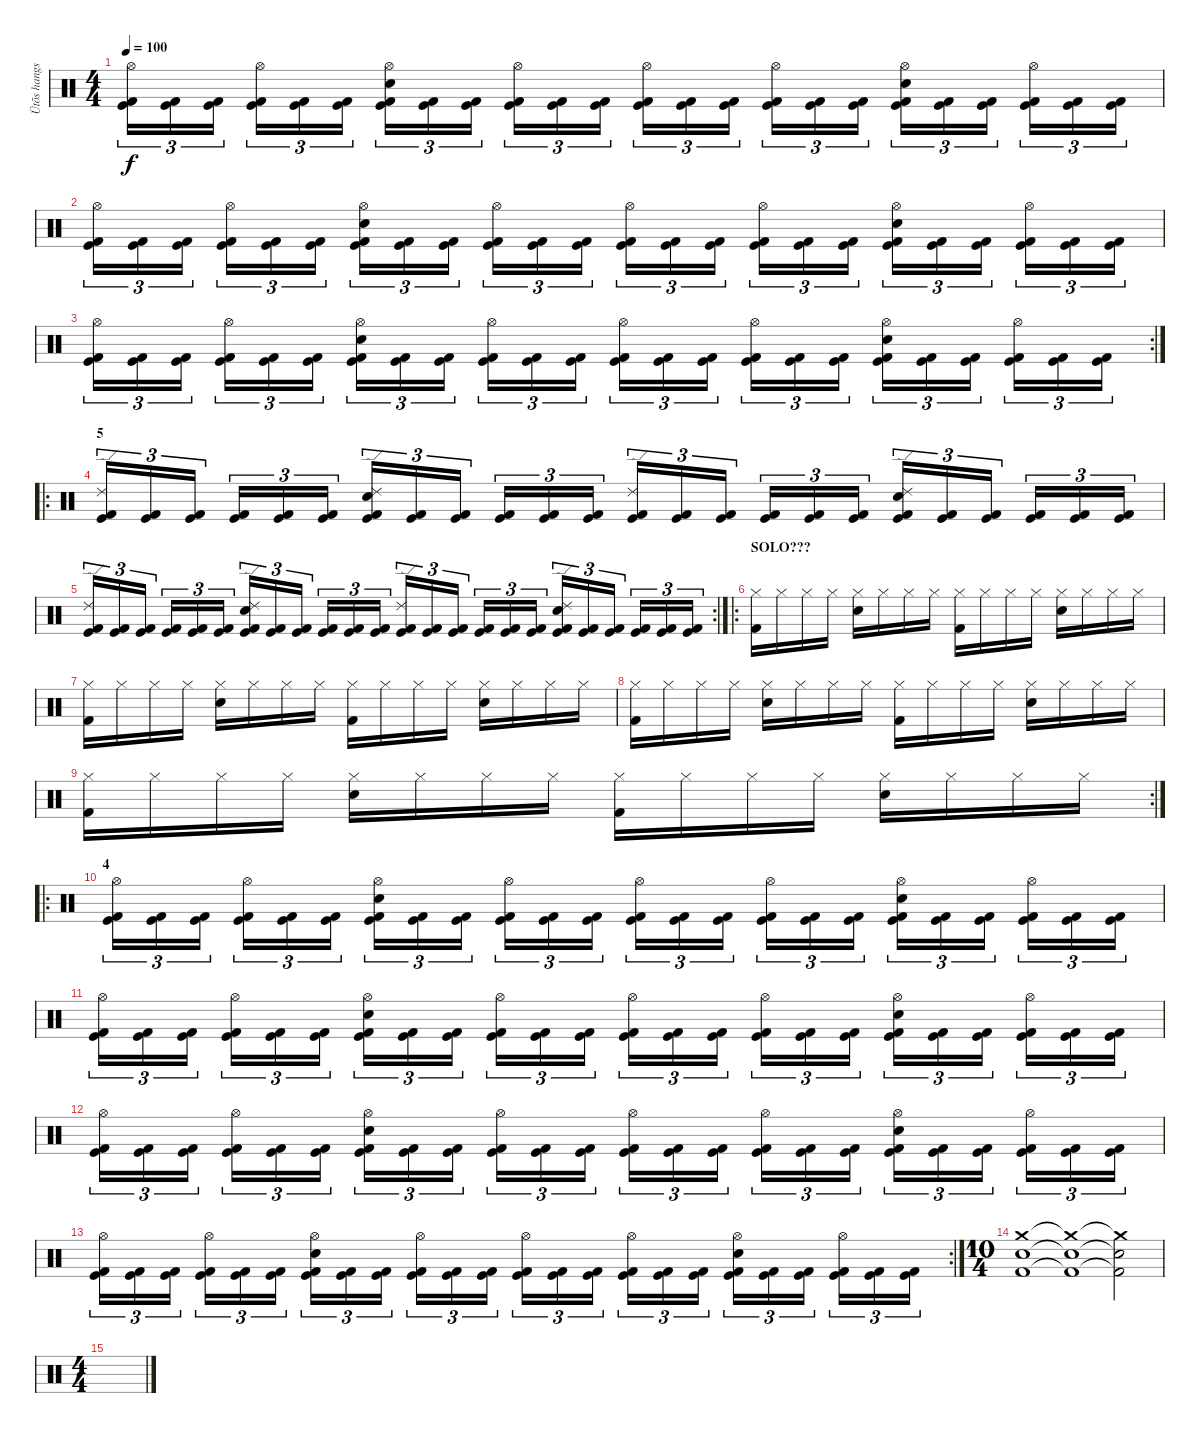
\track ("Ütõs hangszer" "Ütõs hangs") {instrument percussion}
\staff {score}
\articulation defaults
\ts (4 4)
\tempo 100
\clef neutral
\ks c
("Hi-Hat (open)" "Kick (hit)" "Kick (hit) 2").16{tu (3 2) dy f} ("Kick (hit)" "Kick (hit) 2").16{tu (3 2)} ("Kick (hit)" "Kick (hit) 2").16{tu (3 2)} ("Hi-Hat (open)" "Kick (hit)" "Kick (hit) 2").16{tu (3 2)} ("Kick (hit)" "Kick (hit) 2").16{tu (3 2)} ("Kick (hit)" "Kick (hit) 2").16{tu (3 2)} ("Hi-Hat (open)" "Snare (hit) 2" "Kick (hit)" "Kick (hit) 2").16{tu (3 2)} ("Kick (hit)" "Kick (hit) 2").16{tu (3 2)} ("Kick (hit)" "Kick (hit) 2").16{tu (3 2)} ("Hi-Hat (open)" "Kick (hit)" "Kick (hit) 2").16{tu (3 2)} ("Kick (hit)" "Kick (hit) 2").16{tu (3 2)} ("Kick (hit)" "Kick (hit) 2").16{tu (3 2)} ("Hi-Hat (open)" "Kick (hit)" "Kick (hit) 2").16{tu (3 2)} ("Kick (hit)" "Kick (hit) 2").16{tu (3 2)} ("Kick (hit)" "Kick (hit) 2").16{tu (3 2)} ("Hi-Hat (open)" "Kick (hit)" "Kick (hit) 2").16{tu (3 2)} ("Kick (hit)" "Kick (hit) 2").16{tu (3 2)} ("Kick (hit)" "Kick (hit) 2").16{tu (3 2)} ("Hi-Hat (open)" "Snare (hit) 2" "Kick (hit)" "Kick (hit) 2").16{tu (3 2)} ("Kick (hit)" "Kick (hit) 2").16{tu (3 2)} ("Kick (hit)" "Kick (hit) 2").16{tu (3 2)} ("Hi-Hat (open)" "Kick (hit)" "Kick (hit) 2").16{tu (3 2)} ("Kick (hit)" "Kick (hit) 2").16{tu (3 2)} ("Kick (hit)" "Kick (hit) 2").16{tu (3 2)} |
("Hi-Hat (open)" "Kick (hit)" "Kick (hit) 2").16{tu (3 2)} ("Kick (hit)" "Kick (hit) 2").16{tu (3 2)} ("Kick (hit)" "Kick (hit) 2").16{tu (3 2)} ("Hi-Hat (open)" "Kick (hit)" "Kick (hit) 2").16{tu (3 2)} ("Kick (hit)" "Kick (hit) 2").16{tu (3 2)} ("Kick (hit)" "Kick (hit) 2").16{tu (3 2)} ("Hi-Hat (open)" "Snare (hit) 2" "Kick (hit)" "Kick (hit) 2").16{tu (3 2)} ("Kick (hit)" "Kick (hit) 2").16{tu (3 2)} ("Kick (hit)" "Kick (hit) 2").16{tu (3 2)} ("Hi-Hat (open)" "Kick (hit)" "Kick (hit) 2").16{tu (3 2)} ("Kick (hit)" "Kick (hit) 2").16{tu (3 2)} ("Kick (hit)" "Kick (hit) 2").16{tu (3 2)} ("Hi-Hat (open)" "Kick (hit)" "Kick (hit) 2").16{tu (3 2)} ("Kick (hit)" "Kick (hit) 2").16{tu (3 2)} ("Kick (hit)" "Kick (hit) 2").16{tu (3 2)} ("Hi-Hat (open)" "Kick (hit)" "Kick (hit) 2").16{tu (3 2)} ("Kick (hit)" "Kick (hit) 2").16{tu (3 2)} ("Kick (hit)" "Kick (hit) 2").16{tu (3 2)} ("Hi-Hat (open)" "Snare (hit) 2" "Kick (hit)" "Kick (hit) 2").16{tu (3 2)} ("Kick (hit)" "Kick (hit) 2").16{tu (3 2)} ("Kick (hit)" "Kick (hit) 2").16{tu (3 2)} ("Hi-Hat (open)" "Kick (hit)" "Kick (hit) 2").16{tu (3 2)} ("Kick (hit)" "Kick (hit) 2").16{tu (3 2)} ("Kick (hit)" "Kick (hit) 2").16{tu (3 2)} |
\rc 2
("Hi-Hat (open)" "Kick (hit)" "Kick (hit) 2").16{tu (3 2)} ("Kick (hit)" "Kick (hit) 2").16{tu (3 2)} ("Kick (hit)" "Kick (hit) 2").16{tu (3 2)} ("Hi-Hat (open)" "Kick (hit)" "Kick (hit) 2").16{tu (3 2)} ("Kick (hit)" "Kick (hit) 2").16{tu (3 2)} ("Kick (hit)" "Kick (hit) 2").16{tu (3 2)} ("Hi-Hat (open)" "Snare (hit) 2" "Kick (hit)" "Kick (hit) 2").16{tu (3 2)} ("Kick (hit)" "Kick (hit) 2").16{tu (3 2)} ("Kick (hit)" "Kick (hit) 2").16{tu (3 2)} ("Hi-Hat (open)" "Kick (hit)" "Kick (hit) 2").16{tu (3 2)} ("Kick (hit)" "Kick (hit) 2").16{tu (3 2)} ("Kick (hit)" "Kick (hit) 2").16{tu (3 2)} ("Hi-Hat (open)" "Kick (hit)" "Kick (hit) 2").16{tu (3 2)} ("Kick (hit)" "Kick (hit) 2").16{tu (3 2)} ("Kick (hit)" "Kick (hit) 2").16{tu (3 2)} ("Hi-Hat (open)" "Kick (hit)" "Kick (hit) 2").16{tu (3 2)} ("Kick (hit)" "Kick (hit) 2").16{tu (3 2)} ("Kick (hit)" "Kick (hit) 2").16{tu (3 2)} ("Hi-Hat (open)" "Snare (hit) 2" "Kick (hit)" "Kick (hit) 2").16{tu (3 2)} ("Kick (hit)" "Kick (hit) 2").16{tu (3 2)} ("Kick (hit)" "Kick (hit) 2").16{tu (3 2)} ("Hi-Hat (open)" "Kick (hit)" "Kick (hit) 2").16{tu (3 2)} ("Kick (hit)" "Kick (hit) 2").16{tu (3 2)} ("Kick (hit)" "Kick (hit) 2").16{tu (3 2)} |
\ro
\section ("" "5")
("Ride (edge) 2" "Kick (hit)" "Kick (hit) 2").16{tu (3 2)} ("Kick (hit)" "Kick (hit) 2").16{tu (3 2)} ("Kick (hit)" "Kick (hit) 2").16{tu (3 2)} ("Kick (hit)" "Kick (hit) 2").16{tu (3 2)} ("Kick (hit)" "Kick (hit) 2").16{tu (3 2)} ("Kick (hit)" "Kick (hit) 2").16{tu (3 2)} ("Ride (edge) 2" "Snare (hit) 2" "Kick (hit)" "Kick (hit) 2").16{tu (3 2)} ("Kick (hit)" "Kick (hit) 2").16{tu (3 2)} ("Kick (hit)" "Kick (hit) 2").16{tu (3 2)} ("Kick (hit)" "Kick (hit) 2").16{tu (3 2)} ("Kick (hit)" "Kick (hit) 2").16{tu (3 2)} ("Kick (hit)" "Kick (hit) 2").16{tu (3 2)} ("Ride (edge) 2" "Kick (hit)" "Kick (hit) 2").16{tu (3 2)} ("Kick (hit)" "Kick (hit) 2").16{tu (3 2)} ("Kick (hit)" "Kick (hit) 2").16{tu (3 2)} ("Kick (hit)" "Kick (hit) 2").16{tu (3 2)} ("Kick (hit)" "Kick (hit) 2").16{tu (3 2)} ("Kick (hit)" "Kick (hit) 2").16{tu (3 2)} ("Ride (edge) 2" "Snare (hit) 2" "Kick (hit)" "Kick (hit) 2").16{tu (3 2)} ("Kick (hit)" "Kick (hit) 2").16{tu (3 2)} ("Kick (hit)" "Kick (hit) 2").16{tu (3 2)} ("Kick (hit)" "Kick (hit) 2").16{tu (3 2)} ("Kick (hit)" "Kick (hit) 2").16{tu (3 2)} ("Kick (hit)" "Kick (hit) 2").16{tu (3 2)} |
\rc 2
("Ride (edge) 2" "Kick (hit)" "Kick (hit) 2").16{tu (3 2)} ("Kick (hit)" "Kick (hit) 2").16{tu (3 2)} ("Kick (hit)" "Kick (hit) 2").16{tu (3 2)} ("Kick (hit)" "Kick (hit) 2").16{tu (3 2)} ("Kick (hit)" "Kick (hit) 2").16{tu (3 2)} ("Kick (hit)" "Kick (hit) 2").16{tu (3 2)} ("Ride (edge) 2" "Snare (hit) 2" "Kick (hit)" "Kick (hit) 2").16{tu (3 2)} ("Kick (hit)" "Kick (hit) 2").16{tu (3 2)} ("Kick (hit)" "Kick (hit) 2").16{tu (3 2)} ("Kick (hit)" "Kick (hit) 2").16{tu (3 2)} ("Kick (hit)" "Kick (hit) 2").16{tu (3 2)} ("Kick (hit)" "Kick (hit) 2").16{tu (3 2)} ("Ride (edge) 2" "Kick (hit)" "Kick (hit) 2").16{tu (3 2)} ("Kick (hit)" "Kick (hit) 2").16{tu (3 2)} ("Kick (hit)" "Kick (hit) 2").16{tu (3 2)} ("Kick (hit)" "Kick (hit) 2").16{tu (3 2)} ("Kick (hit)" "Kick (hit) 2").16{tu (3 2)} ("Kick (hit)" "Kick (hit) 2").16{tu (3 2)} ("Ride (edge) 2" "Snare (hit) 2" "Kick (hit)" "Kick (hit) 2").16{tu (3 2)} ("Kick (hit)" "Kick (hit) 2").16{tu (3 2)} ("Kick (hit)" "Kick (hit) 2").16{tu (3 2)} ("Kick (hit)" "Kick (hit) 2").16{tu (3 2)} ("Kick (hit)" "Kick (hit) 2").16{tu (3 2)} ("Kick (hit)" "Kick (hit) 2").16{tu (3 2)} |
\ro
\section ("" "SOLO???")
("Hi-Hat (closed)" "Kick (hit) 2").16 "Hi-Hat (closed)".16 "Hi-Hat (closed)".16 "Hi-Hat (closed)".16 ("Hi-Hat (closed)" "Snare (hit) 2").16 "Hi-Hat (closed)".16 "Hi-Hat (closed)".16 "Hi-Hat (closed)".16 ("Hi-Hat (closed)" "Kick (hit) 2").16 "Hi-Hat (closed)".16 "Hi-Hat (closed)".16 "Hi-Hat (closed)".16 ("Hi-Hat (closed)" "Snare (hit) 2").16 "Hi-Hat (closed)".16 "Hi-Hat (closed)".16 "Hi-Hat (closed)".16 |
("Hi-Hat (closed)" "Kick (hit) 2").16 "Hi-Hat (closed)".16 "Hi-Hat (closed)".16 "Hi-Hat (closed)".16 ("Hi-Hat (closed)" "Snare (hit) 2").16 "Hi-Hat (closed)".16 "Hi-Hat (closed)".16 "Hi-Hat (closed)".16 ("Hi-Hat (closed)" "Kick (hit) 2").16 "Hi-Hat (closed)".16 "Hi-Hat (closed)".16 "Hi-Hat (closed)".16 ("Hi-Hat (closed)" "Snare (hit) 2").16 "Hi-Hat (closed)".16 "Hi-Hat (closed)".16 "Hi-Hat (closed)".16 |
("Hi-Hat (closed)" "Kick (hit) 2").16 "Hi-Hat (closed)".16 "Hi-Hat (closed)".16 "Hi-Hat (closed)".16 ("Hi-Hat (closed)" "Snare (hit) 2").16 "Hi-Hat (closed)".16 "Hi-Hat (closed)".16 "Hi-Hat (closed)".16 ("Hi-Hat (closed)" "Kick (hit) 2").16 "Hi-Hat (closed)".16 "Hi-Hat (closed)".16 "Hi-Hat (closed)".16 ("Hi-Hat (closed)" "Snare (hit) 2").16 "Hi-Hat (closed)".16 "Hi-Hat (closed)".16 "Hi-Hat (closed)".16 |
\rc 2
("Hi-Hat (closed)" "Kick (hit) 2").16 "Hi-Hat (closed)".16 "Hi-Hat (closed)".16 "Hi-Hat (closed)".16 ("Hi-Hat (closed)" "Snare (hit) 2").16 "Hi-Hat (closed)".16 "Hi-Hat (closed)".16 "Hi-Hat (closed)".16 ("Hi-Hat (closed)" "Kick (hit) 2").16 "Hi-Hat (closed)".16 "Hi-Hat (closed)".16 "Hi-Hat (closed)".16 ("Hi-Hat (closed)" "Snare (hit) 2").16 "Hi-Hat (closed)".16 "Hi-Hat (closed)".16 "Hi-Hat (closed)".16 |
\ro
\section ("" "4")
("Hi-Hat (open)" "Kick (hit)" "Kick (hit) 2").16{tu (3 2)} ("Kick (hit)" "Kick (hit) 2").16{tu (3 2)} ("Kick (hit)" "Kick (hit) 2").16{tu (3 2)} ("Hi-Hat (open)" "Kick (hit)" "Kick (hit) 2").16{tu (3 2)} ("Kick (hit)" "Kick (hit) 2").16{tu (3 2)} ("Kick (hit)" "Kick (hit) 2").16{tu (3 2)} ("Hi-Hat (open)" "Snare (hit) 2" "Kick (hit)" "Kick (hit) 2").16{tu (3 2)} ("Kick (hit)" "Kick (hit) 2").16{tu (3 2)} ("Kick (hit)" "Kick (hit) 2").16{tu (3 2)} ("Hi-Hat (open)" "Kick (hit)" "Kick (hit) 2").16{tu (3 2)} ("Kick (hit)" "Kick (hit) 2").16{tu (3 2)} ("Kick (hit)" "Kick (hit) 2").16{tu (3 2)} ("Hi-Hat (open)" "Kick (hit)" "Kick (hit) 2").16{tu (3 2)} ("Kick (hit)" "Kick (hit) 2").16{tu (3 2)} ("Kick (hit)" "Kick (hit) 2").16{tu (3 2)} ("Hi-Hat (open)" "Kick (hit)" "Kick (hit) 2").16{tu (3 2)} ("Kick (hit)" "Kick (hit) 2").16{tu (3 2)} ("Kick (hit)" "Kick (hit) 2").16{tu (3 2)} ("Hi-Hat (open)" "Snare (hit) 2" "Kick (hit)" "Kick (hit) 2").16{tu (3 2)} ("Kick (hit)" "Kick (hit) 2").16{tu (3 2)} ("Kick (hit)" "Kick (hit) 2").16{tu (3 2)} ("Hi-Hat (open)" "Kick (hit)" "Kick (hit) 2").16{tu (3 2)} ("Kick (hit)" "Kick (hit) 2").16{tu (3 2)} ("Kick (hit)" "Kick (hit) 2").16{tu (3 2)} |
("Hi-Hat (open)" "Kick (hit)" "Kick (hit) 2").16{tu (3 2)} ("Kick (hit)" "Kick (hit) 2").16{tu (3 2)} ("Kick (hit)" "Kick (hit) 2").16{tu (3 2)} ("Hi-Hat (open)" "Kick (hit)" "Kick (hit) 2").16{tu (3 2)} ("Kick (hit)" "Kick (hit) 2").16{tu (3 2)} ("Kick (hit)" "Kick (hit) 2").16{tu (3 2)} ("Hi-Hat (open)" "Snare (hit) 2" "Kick (hit)" "Kick (hit) 2").16{tu (3 2)} ("Kick (hit)" "Kick (hit) 2").16{tu (3 2)} ("Kick (hit)" "Kick (hit) 2").16{tu (3 2)} ("Hi-Hat (open)" "Kick (hit)" "Kick (hit) 2").16{tu (3 2)} ("Kick (hit)" "Kick (hit) 2").16{tu (3 2)} ("Kick (hit)" "Kick (hit) 2").16{tu (3 2)} ("Hi-Hat (open)" "Kick (hit)" "Kick (hit) 2").16{tu (3 2)} ("Kick (hit)" "Kick (hit) 2").16{tu (3 2)} ("Kick (hit)" "Kick (hit) 2").16{tu (3 2)} ("Hi-Hat (open)" "Kick (hit)" "Kick (hit) 2").16{tu (3 2)} ("Kick (hit)" "Kick (hit) 2").16{tu (3 2)} ("Kick (hit)" "Kick (hit) 2").16{tu (3 2)} ("Hi-Hat (open)" "Snare (hit) 2" "Kick (hit)" "Kick (hit) 2").16{tu (3 2)} ("Kick (hit)" "Kick (hit) 2").16{tu (3 2)} ("Kick (hit)" "Kick (hit) 2").16{tu (3 2)} ("Hi-Hat (open)" "Kick (hit)" "Kick (hit) 2").16{tu (3 2)} ("Kick (hit)" "Kick (hit) 2").16{tu (3 2)} ("Kick (hit)" "Kick (hit) 2").16{tu (3 2)} |
("Hi-Hat (open)" "Kick (hit)" "Kick (hit) 2").16{tu (3 2)} ("Kick (hit)" "Kick (hit) 2").16{tu (3 2)} ("Kick (hit)" "Kick (hit) 2").16{tu (3 2)} ("Hi-Hat (open)" "Kick (hit)" "Kick (hit) 2").16{tu (3 2)} ("Kick (hit)" "Kick (hit) 2").16{tu (3 2)} ("Kick (hit)" "Kick (hit) 2").16{tu (3 2)} ("Hi-Hat (open)" "Snare (hit) 2" "Kick (hit)" "Kick (hit) 2").16{tu (3 2)} ("Kick (hit)" "Kick (hit) 2").16{tu (3 2)} ("Kick (hit)" "Kick (hit) 2").16{tu (3 2)} ("Hi-Hat (open)" "Kick (hit)" "Kick (hit) 2").16{tu (3 2)} ("Kick (hit)" "Kick (hit) 2").16{tu (3 2)} ("Kick (hit)" "Kick (hit) 2").16{tu (3 2)} ("Hi-Hat (open)" "Kick (hit)" "Kick (hit) 2").16{tu (3 2)} ("Kick (hit)" "Kick (hit) 2").16{tu (3 2)} ("Kick (hit)" "Kick (hit) 2").16{tu (3 2)} ("Hi-Hat (open)" "Kick (hit)" "Kick (hit) 2").16{tu (3 2)} ("Kick (hit)" "Kick (hit) 2").16{tu (3 2)} ("Kick (hit)" "Kick (hit) 2").16{tu (3 2)} ("Hi-Hat (open)" "Snare (hit) 2" "Kick (hit)" "Kick (hit) 2").16{tu (3 2)} ("Kick (hit)" "Kick (hit) 2").16{tu (3 2)} ("Kick (hit)" "Kick (hit) 2").16{tu (3 2)} ("Hi-Hat (open)" "Kick (hit)" "Kick (hit) 2").16{tu (3 2)} ("Kick (hit)" "Kick (hit) 2").16{tu (3 2)} ("Kick (hit)" "Kick (hit) 2").16{tu (3 2)} |
\rc 2
("Hi-Hat (open)" "Kick (hit)" "Kick (hit) 2").16{tu (3 2)} ("Kick (hit)" "Kick (hit) 2").16{tu (3 2)} ("Kick (hit)" "Kick (hit) 2").16{tu (3 2)} ("Hi-Hat (open)" "Kick (hit)" "Kick (hit) 2").16{tu (3 2)} ("Kick (hit)" "Kick (hit) 2").16{tu (3 2)} ("Kick (hit)" "Kick (hit) 2").16{tu (3 2)} ("Hi-Hat (open)" "Snare (hit) 2" "Kick (hit)" "Kick (hit) 2").16{tu (3 2)} ("Kick (hit)" "Kick (hit) 2").16{tu (3 2)} ("Kick (hit)" "Kick (hit) 2").16{tu (3 2)} ("Hi-Hat (open)" "Kick (hit)" "Kick (hit) 2").16{tu (3 2)} ("Kick (hit)" "Kick (hit) 2").16{tu (3 2)} ("Kick (hit)" "Kick (hit) 2").16{tu (3 2)} ("Hi-Hat (open)" "Kick (hit)" "Kick (hit) 2").16{tu (3 2)} ("Kick (hit)" "Kick (hit) 2").16{tu (3 2)} ("Kick (hit)" "Kick (hit) 2").16{tu (3 2)} ("Hi-Hat (open)" "Kick (hit)" "Kick (hit) 2").16{tu (3 2)} ("Kick (hit)" "Kick (hit) 2").16{tu (3 2)} ("Kick (hit)" "Kick (hit) 2").16{tu (3 2)} ("Hi-Hat (open)" "Snare (hit) 2" "Kick (hit)" "Kick (hit) 2").16{tu (3 2)} ("Kick (hit)" "Kick (hit) 2").16{tu (3 2)} ("Kick (hit)" "Kick (hit) 2").16{tu (3 2)} ("Hi-Hat (open)" "Kick (hit)" "Kick (hit) 2").16{tu (3 2)} ("Kick (hit)" "Kick (hit) 2").16{tu (3 2)} ("Kick (hit)" "Kick (hit) 2").16{tu (3 2)} |
\ts (10 4)
("Crash medium (hit)" "Snare (hit) 2" "Kick (hit) 2").1 ("Crash medium (hit)"{t} "Snare (hit) 2"{t} "Kick (hit) 2"{t}).1 ("Crash medium (hit)"{t} "Snare (hit) 2"{t} "Kick (hit) 2"{t}).2 |
\ts (4 4)
